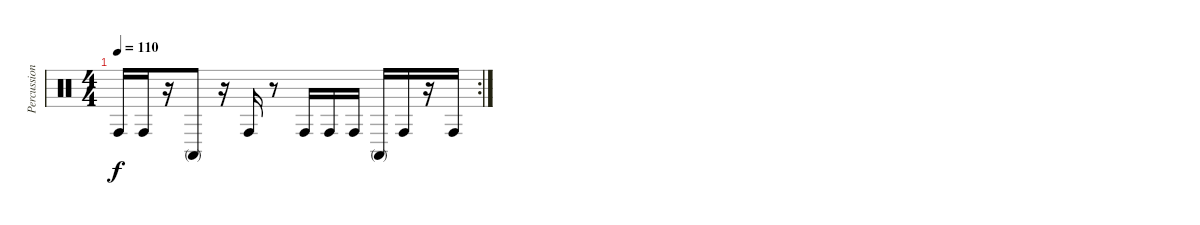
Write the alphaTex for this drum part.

\track ("Percussion" "Percussion") {instrument percussion}
\staff {score}
\articulation defaults
\rc 2
\ts (4 4)
\tempo 110
\clef neutral
\ks c "Conga high (hit)".16{dy f} "Conga high (hit)".16
r.16 "Conga high (mute)".8 r.16 "Conga high (hit)".16 r.8 "Conga high (hit)".16 "Conga high (hit)".16 "Conga high (hit)".16 "Conga high (mute)".16 "Conga high (hit)".16 r.16 "Conga high (hit)".16
